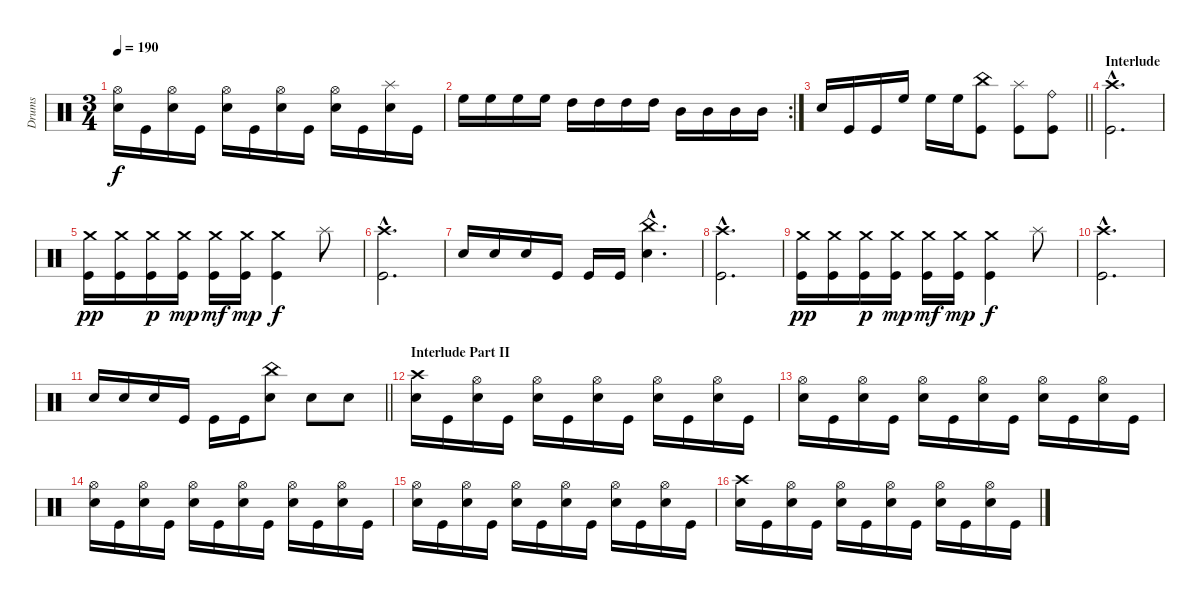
\track ("Drums" "Drums") {instrument percussion}
\staff {score}
\articulation defaults
\ts (3 4)
\tempo 190
\clef neutral
\ks c
("Hi-Hat (open)" "Snare (hit) 2").16{dy f} "Kick (hit)".16 ("Hi-Hat (open)" "Snare (hit) 2").16 "Kick (hit)".16 ("Hi-Hat (open)" "Snare (hit) 2").16 "Kick (hit)".16 ("Hi-Hat (open)" "Snare (hit) 2").16 "Kick (hit)".16 ("Hi-Hat (open)" "Snare (hit) 2").16 "Kick (hit)".16 ("Splash (hit)" "Snare (hit) 2").16 "Kick (hit)".16 |
\rc 2 "High Floor Tom (hit)".16 "High Floor Tom (hit)".16 "High Floor Tom (hit)".16 "High Floor Tom (hit)".16 "High Tom (hit)".16 "High Tom (hit)".16 "High Tom (hit)".16 "High Tom (hit)".16 "Mid Tom (hit)".16 "Mid Tom (hit)".16 "Mid Tom (hit)".16 "Mid Tom (hit)".16
|
\barLineRight lightlight "Electric Snare (hit)".16 "Kick (hit)".16 "Kick (hit)".16 "High Floor Tom (hit)".16 "High Floor Tom (hit)".16 "High Floor Tom (hit)".16
("China (hit)" "Kick (hit)").8 ("Splash (hit)" "Kick (hit)").8 ("Ride (bell)" "Kick (hit)").8 |
\section ("" "Interlude")
("Crash high (hit)"{hac} "Kick (hit)"{hac}).2{d} |
("Crash medium (hit)" "Kick (hit)").16{dy pp} ("Crash medium (hit)" "Kick (hit)").16 ("Crash medium (hit)" "Kick (hit)").16{dy p} ("Crash medium (hit)" "Kick (hit)").16{dy mp} ("Crash medium (hit)" "Kick (hit)").16{dy mf} ("Crash medium (hit)" "Kick (hit)").16{dy mp} ("Crash medium (hit)" "Kick (hit)").4{dy f} "Splash (hit)".8 |
("Crash high (hit)"{hac} "Kick (hit)"{hac}).2{d} |
"Electric Snare (hit)".16 "Electric Snare (hit)".16 "Electric Snare (hit)".16 "Kick (hit)".16 "Kick (hit)".16 "Kick (hit)".16 ("China (hit)"{hac} "Electric Snare (hit)"{hac}).4{d} |
("Crash high (hit)"{hac} "Kick (hit)"{hac}).2{d} |
("Crash medium (hit)" "Kick (hit)").16{dy pp} ("Crash medium (hit)" "Kick (hit)").16 ("Crash medium (hit)" "Kick (hit)").16{dy p} ("Crash medium (hit)" "Kick (hit)").16{dy mp} ("Crash medium (hit)" "Kick (hit)").16{dy mf} ("Crash medium (hit)" "Kick (hit)").16{dy mp} ("Crash medium (hit)" "Kick (hit)").4{dy f} "Splash (hit)".8 |
("Crash high (hit)"{hac} "Kick (hit)"{hac}).2{d} |
\barLineRight lightlight "Electric Snare (hit)".16 "Electric Snare (hit)".16 "Electric Snare (hit)".16 "Kick (hit)".16 "Kick (hit)".16 "Kick (hit)".16
("China (hit)" "Electric Snare (hit)").8 "Electric Snare (hit)".8 "Electric Snare (hit)".8 |
\section ("" "Interlude Part II")
("Crash high (hit)" "Snare (hit) 2").16 "Kick (hit)".16 ("Hi-Hat (open)" "Snare (hit) 2").16 "Kick (hit)".16 ("Hi-Hat (open)" "Snare (hit) 2").16 "Kick (hit)".16 ("Hi-Hat (open)" "Snare (hit) 2").16 "Kick (hit)".16 ("Hi-Hat (open)" "Snare (hit) 2").16 "Kick (hit)".16 ("Hi-Hat (open)" "Snare (hit) 2").16 "Kick (hit)".16 |
("Hi-Hat (open)" "Snare (hit) 2").16 "Kick (hit)".16 ("Hi-Hat (open)" "Snare (hit) 2").16 "Kick (hit)".16 ("Hi-Hat (open)" "Snare (hit) 2").16 "Kick (hit)".16 ("Hi-Hat (open)" "Snare (hit) 2").16 "Kick (hit)".16 ("Hi-Hat (open)" "Snare (hit) 2").16 "Kick (hit)".16 ("Hi-Hat (open)" "Snare (hit) 2").16 "Kick (hit)".16 |
("Hi-Hat (open)" "Snare (hit) 2").16 "Kick (hit)".16 ("Hi-Hat (open)" "Snare (hit) 2").16 "Kick (hit)".16 ("Hi-Hat (open)" "Snare (hit) 2").16 "Kick (hit)".16 ("Hi-Hat (open)" "Snare (hit) 2").16 "Kick (hit)".16 ("Hi-Hat (open)" "Snare (hit) 2").16 "Kick (hit)".16 ("Hi-Hat (open)" "Snare (hit) 2").16 "Kick (hit)".16 |
("Hi-Hat (open)" "Snare (hit) 2").16 "Kick (hit)".16 ("Hi-Hat (open)" "Snare (hit) 2").16 "Kick (hit)".16 ("Hi-Hat (open)" "Snare (hit) 2").16 "Kick (hit)".16 ("Hi-Hat (open)" "Snare (hit) 2").16 "Kick (hit)".16 ("Hi-Hat (open)" "Snare (hit) 2").16 "Kick (hit)".16 ("Hi-Hat (open)" "Snare (hit) 2").16 "Kick (hit)".16 |
("Crash high (hit)" "Snare (hit) 2").16 "Kick (hit)".16 ("Hi-Hat (open)" "Snare (hit) 2").16 "Kick (hit)".16 ("Hi-Hat (open)" "Snare (hit) 2").16 "Kick (hit)".16 ("Hi-Hat (open)" "Snare (hit) 2").16 "Kick (hit)".16 ("Hi-Hat (open)" "Snare (hit) 2").16 "Kick (hit)".16 ("Hi-Hat (open)" "Snare (hit) 2").16 "Kick (hit)".16
